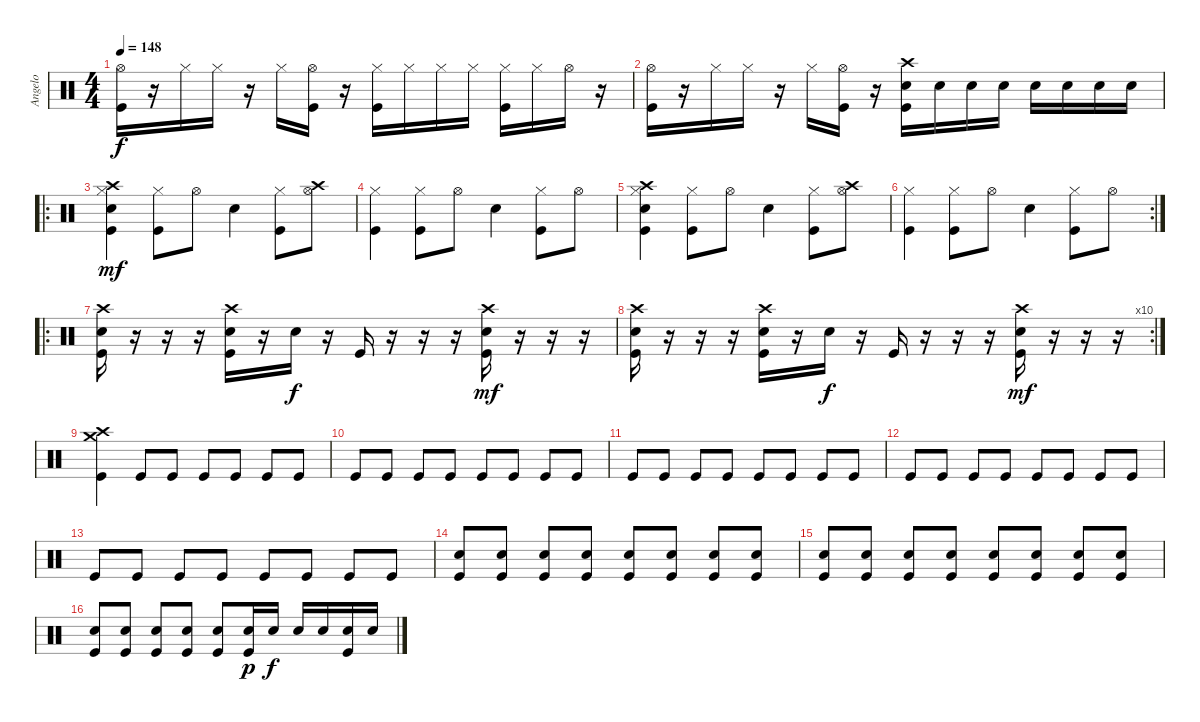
\track ("Angelo" "Angelo") {instrument percussion}
\staff {score}
\articulation defaults
\ts (4 4)
\tempo 148
\clef neutral
\ks c
("Hi-Hat (open)" "Kick (hit)").16{dy f} r.16 "Hi-Hat (closed)".16 "Hi-Hat (closed)".16 r.16 "Hi-Hat (closed)".16 ("Hi-Hat (open)" "Kick (hit)").16 r.16 ("Hi-Hat (closed)" "Kick (hit)").16 "Hi-Hat (closed)".16 "Hi-Hat (closed)".16 "Hi-Hat (closed)".16 ("Hi-Hat (closed)" "Kick (hit)").16 "Hi-Hat (closed)".16 "Hi-Hat (open)".16 r.16 |
("Hi-Hat (open)" "Kick (hit)").16 r.16 "Hi-Hat (closed)".16 "Hi-Hat (closed)".16 r.16 "Hi-Hat (closed)".16 ("Hi-Hat (open)" "Kick (hit)").16 r.16 ("Snare (hit) 2" "Crash high (hit)" "Kick (hit)").16 "Snare (hit) 2".16 "Snare (hit) 2".16 "Snare (hit) 2".16 "Snare (hit) 2".16 "Snare (hit) 2".16 "Snare (hit) 2".16 "Snare (hit) 2".16 |
\ro
("Crash high (hit)" "Hi-Hat (closed)" "Snare (hit) 2" "Kick (hit)").4{dy mf} ("Hi-Hat (closed)" "Kick (hit)").8 "Hi-Hat (open)".8 "Snare (hit) 2".4 ("Hi-Hat (closed)" "Kick (hit)").8 ("Crash high (hit)" "Hi-Hat (open)").8 |
("Hi-Hat (closed)" "Kick (hit)").4 ("Hi-Hat (closed)" "Kick (hit)").8 "Hi-Hat (open)".8 "Snare (hit) 2".4 ("Hi-Hat (closed)" "Kick (hit)").8 "Hi-Hat (open)".8 |
("Crash high (hit)" "Hi-Hat (closed)" "Snare (hit) 2" "Kick (hit)").4 ("Hi-Hat (closed)" "Kick (hit)").8 "Hi-Hat (open)".8 "Snare (hit) 2".4 ("Hi-Hat (closed)" "Kick (hit)").8 ("Crash high (hit)" "Hi-Hat (open)").8 |
\rc 2
("Hi-Hat (closed)" "Kick (hit)").4 ("Hi-Hat (closed)" "Kick (hit)").8 "Hi-Hat (open)".8 "Snare (hit) 2".4 ("Hi-Hat (closed)" "Kick (hit)").8 "Hi-Hat (open)".8 |
\ro
("Crash high (hit)" "Snare (hit) 2" "Kick (hit)").16 r.16 r.16 r.16 ("Crash high (hit)" "Snare (hit) 2" "Kick (hit)").16 r.16 "Snare (hit) 2".16{dy f} r.16 "Kick (hit)".16 r.16 r.16 r.16 ("Crash high (hit)" "Snare (hit) 2" "Kick (hit)").16{dy mf} r.16 r.16 r.16 |
\rc 10
("Crash high (hit)" "Snare (hit) 2" "Kick (hit)").16 r.16 r.16 r.16 ("Crash high (hit)" "Snare (hit) 2" "Kick (hit)").16 r.16 "Snare (hit) 2".16{dy f} r.16 "Kick (hit)".16 r.16 r.16 r.16 ("Crash high (hit)" "Snare (hit) 2" "Kick (hit)").16{dy mf} r.16 r.16 r.16 |
("Crash high (hit)" "Crash medium (hit)" "Kick (hit)").4 "Kick (hit)".8 "Kick (hit)".8 "Kick (hit)".8 "Kick (hit)".8 "Kick (hit)".8 "Kick (hit)".8 |
"Kick (hit)".8 "Kick (hit)".8 "Kick (hit)".8 "Kick (hit)".8 "Kick (hit)".8 "Kick (hit)".8 "Kick (hit)".8 "Kick (hit)".8 |
"Kick (hit)".8 "Kick (hit)".8 "Kick (hit)".8 "Kick (hit)".8 "Kick (hit)".8 "Kick (hit)".8 "Kick (hit)".8 "Kick (hit)".8 |
"Kick (hit)".8 "Kick (hit)".8 "Kick (hit)".8 "Kick (hit)".8 "Kick (hit)".8 "Kick (hit)".8 "Kick (hit)".8 "Kick (hit)".8 |
"Kick (hit)".8 "Kick (hit)".8 "Kick (hit)".8 "Kick (hit)".8 "Kick (hit)".8 "Kick (hit)".8 "Kick (hit)".8 "Kick (hit)".8 |
("Snare (hit) 2" "Kick (hit)").8 ("Snare (hit) 2" "Kick (hit)").8 ("Snare (hit) 2" "Kick (hit)").8 ("Snare (hit) 2" "Kick (hit)").8 ("Snare (hit) 2" "Kick (hit)").8 ("Snare (hit) 2" "Kick (hit)").8 ("Snare (hit) 2" "Kick (hit)").8 ("Snare (hit) 2" "Kick (hit)").8 |
("Snare (hit) 2" "Kick (hit)").8 ("Snare (hit) 2" "Kick (hit)").8 ("Snare (hit) 2" "Kick (hit)").8 ("Snare (hit) 2" "Kick (hit)").8 ("Snare (hit) 2" "Kick (hit)").8 ("Snare (hit) 2" "Kick (hit)").8 ("Snare (hit) 2" "Kick (hit)").8 ("Snare (hit) 2" "Kick (hit)").8 |
("Snare (hit) 2" "Kick (hit)").8 ("Snare (hit) 2" "Kick (hit)").8 ("Snare (hit) 2" "Kick (hit)").8 ("Snare (hit) 2" "Kick (hit)").8 ("Snare (hit) 2" "Kick (hit)").8 ("Snare (hit) 2" "Kick (hit)").16{dy p} "Snare (hit) 2".16{dy f} "Snare (hit) 2".16 "Snare (hit) 2".16 ("Snare (hit) 2" "Kick (hit)").16 "Snare (hit) 2".16
